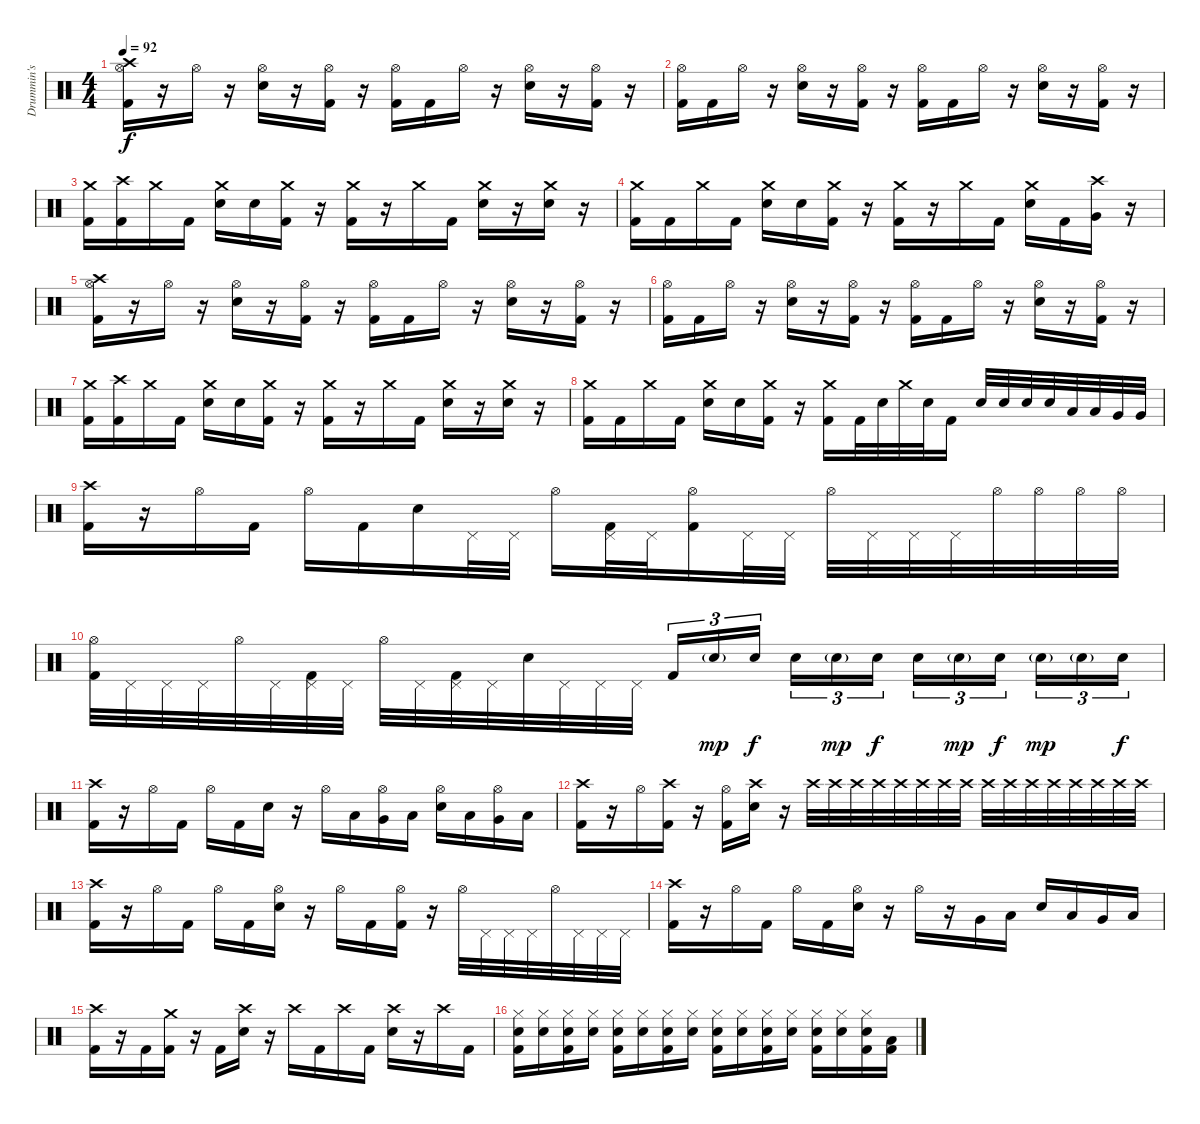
\track ("Drummin's" "Drummin's") {instrument percussion}
\staff {score}
\articulation defaults
\ts (4 4)
\tempo 92
\clef neutral
\ks c
("Crash high (hit)" "Hi-Hat (open)" "Kick (hit) 2").16{dy f} r.16 "Hi-Hat (open)".16 r.16 ("Hi-Hat (open)" "Snare (hit) 2").16 r.16 ("Hi-Hat (open)" "Kick (hit) 2").16 r.16 ("Hi-Hat (open)" "Kick (hit) 2").16 "Kick (hit) 2".16 "Hi-Hat (open)".16 r.16 ("Hi-Hat (open)" "Snare (hit) 2").16 r.16 ("Hi-Hat (open)" "Kick (hit) 2").16 r.16 |
("Hi-Hat (open)" "Kick (hit) 2").16 "Kick (hit) 2".16 "Hi-Hat (open)".16 r.16 ("Hi-Hat (open)" "Snare (hit) 2").16 r.16 ("Hi-Hat (open)" "Kick (hit) 2").16 r.16 ("Hi-Hat (open)" "Kick (hit) 2").16 "Kick (hit) 2".16 "Hi-Hat (open)".16 r.16 ("Hi-Hat (open)" "Snare (hit) 2").16 r.16 ("Hi-Hat (open)" "Kick (hit) 2").16 r.16 |
("Crash medium (hit)" "Kick (hit) 2").16 ("Crash high (hit)" "Kick (hit) 2").16 "Crash medium (hit)".16 "Kick (hit) 2".16 ("Crash medium (hit)" "Snare (hit) 2").16 "Snare (hit) 2".16 ("Crash medium (hit)" "Kick (hit) 2").16 r.16 ("Crash medium (hit)" "Kick (hit) 2").16 r.16 "Crash medium (hit)".16 "Kick (hit) 2".16 ("Crash medium (hit)" "Snare (hit) 2").16 r.16 ("Crash medium (hit)" "Snare (hit) 2").16 r.16 |
("Crash medium (hit)" "Kick (hit) 2").16 "Kick (hit) 2".16 "Crash medium (hit)".16 "Kick (hit) 2".16 ("Crash medium (hit)" "Snare (hit) 2").16 "Snare (hit) 2".16 ("Crash medium (hit)" "Kick (hit) 2").16 r.16 ("Crash medium (hit)" "Kick (hit) 2").16 r.16 "Crash medium (hit)".16 "Kick (hit) 2".16 ("Crash medium (hit)" "Snare (hit) 2").16 "Kick (hit) 2".16 ("Crash high (hit)" "Very Low Tom (hit)").16 r.16 |
("Crash high (hit)" "Hi-Hat (open)" "Kick (hit) 2").16 r.16 "Hi-Hat (open)".16 r.16 ("Hi-Hat (open)" "Snare (hit) 2").16 r.16 ("Hi-Hat (open)" "Kick (hit) 2").16 r.16 ("Hi-Hat (open)" "Kick (hit) 2").16 "Kick (hit) 2".16 "Hi-Hat (open)".16 r.16 ("Hi-Hat (open)" "Snare (hit) 2").16 r.16 ("Hi-Hat (open)" "Kick (hit) 2").16 r.16 |
("Hi-Hat (open)" "Kick (hit) 2").16 "Kick (hit) 2".16 "Hi-Hat (open)".16 r.16 ("Hi-Hat (open)" "Snare (hit) 2").16 r.16 ("Hi-Hat (open)" "Kick (hit) 2").16 r.16 ("Hi-Hat (open)" "Kick (hit) 2").16 "Kick (hit) 2".16 "Hi-Hat (open)".16 r.16 ("Hi-Hat (open)" "Snare (hit) 2").16 r.16 ("Hi-Hat (open)" "Kick (hit) 2").16 r.16 |
("Crash medium (hit)" "Kick (hit) 2").16 ("Crash high (hit)" "Kick (hit) 2").16 "Crash medium (hit)".16 "Kick (hit) 2".16 ("Crash medium (hit)" "Snare (hit) 2").16 "Snare (hit) 2".16 ("Crash medium (hit)" "Kick (hit) 2").16 r.16 ("Crash medium (hit)" "Kick (hit) 2").16 r.16 "Crash medium (hit)".16 "Kick (hit) 2".16 ("Crash medium (hit)" "Snare (hit) 2").16 r.16 ("Crash medium (hit)" "Snare (hit) 2").16 r.16 |
("Crash medium (hit)" "Kick (hit) 2").16 "Kick (hit) 2".16 "Crash medium (hit)".16 "Kick (hit) 2".16 ("Crash medium (hit)" "Snare (hit) 2").16 "Snare (hit) 2".16 ("Crash medium (hit)" "Kick (hit) 2").16 r.16 ("Crash medium (hit)" "Kick (hit) 2").16 "Kick (hit) 2".32 "Snare (hit) 2".32 "Crash medium (hit)".32 "Snare (hit) 2".32 "Kick (hit) 2".16 "Snare (hit) 2".32 "Snare (hit) 2".32 "Snare (hit) 2".32 "Snare (hit) 2".32 "Low Tom (hit)".32 "Low Tom (hit)".32 "Very Low Tom (hit)".32 "Very Low Tom (hit)".32 |
("Crash high (hit)" "Kick (hit) 2").16 r.16 "Hi-Hat (open)".16 "Kick (hit) 2".16 "Hi-Hat (open)".16 "Kick (hit) 2".16 "Snare (hit) 2".16 "Pedal Hi-Hat (hit)".32 "Pedal Hi-Hat (hit)".32 "Hi-Hat (open)".16 ("Pedal Hi-Hat (hit)" "Kick (hit) 2").32 "Pedal Hi-Hat (hit)".32 ("Hi-Hat (open)" "Kick (hit) 2").16 "Pedal Hi-Hat (hit)".32 "Pedal Hi-Hat (hit)".32 "Hi-Hat (open)".32 "Pedal Hi-Hat (hit)".32 "Pedal Hi-Hat (hit)".32 "Pedal Hi-Hat (hit)".32 "Hi-Hat (open)".32 "Hi-Hat (open)".32 "Hi-Hat (open)".32 "Hi-Hat (open)".32 |
("Hi-Hat (open)" "Kick (hit) 2").32 "Pedal Hi-Hat (hit)".32 "Pedal Hi-Hat (hit)".32 "Pedal Hi-Hat (hit)".32 "Hi-Hat (open)".32 "Pedal Hi-Hat (hit)".32 ("Pedal Hi-Hat (hit)" "Kick (hit) 2").32 "Pedal Hi-Hat (hit)".32 "Hi-Hat (open)".32 "Pedal Hi-Hat (hit)".32 ("Pedal Hi-Hat (hit)" "Kick (hit) 2").32 "Pedal Hi-Hat (hit)".32 "Snare (hit) 2".32 "Pedal Hi-Hat (hit)".32 "Pedal Hi-Hat (hit)".32 "Pedal Hi-Hat (hit)".32 "Kick (hit) 2".16{tu (3 2)} "Snare (hit) 2"{g}.16{tu (3 2) dy mp} "Snare (hit) 2".16{tu (3 2) dy f} "Snare (hit) 2".16{tu (3 2)} "Snare (hit) 2"{g}.16{tu (3 2) dy mp} "Snare (hit) 2".16{tu (3 2) dy f} "Snare (hit) 2".16{tu (3 2)} "Snare (hit) 2"{g}.16{tu (3 2) dy mp} "Snare (hit) 2".16{tu (3 2) dy f} "Snare (hit) 2"{g}.16{tu (3 2) dy mp} "Snare (hit) 2"{g}.16{tu (3 2)} "Snare (hit) 2".16{tu (3 2) dy f} |
("Crash high (hit)" "Kick (hit) 2").16 r.16 "Hi-Hat (open)".16 "Kick (hit) 2".16 "Hi-Hat (open)".16 "Kick (hit) 2".16 "Snare (hit) 2".16 r.16 "Hi-Hat (open)".16 "Low Tom (hit)".16 ("Hi-Hat (open)" "Very Low Tom (hit)").16 "Low Floor Tom (hit)".16 ("Hi-Hat (open)" "Snare (hit) 2").16 "Low Tom (hit)".16 ("Hi-Hat (open)" "Very Low Tom (hit)").16 "Low Floor Tom (hit)".16 |
("Crash high (hit)" "Kick (hit) 2").16 r.16 "Hi-Hat (open)".16 ("Crash high (hit)" "Kick (hit) 2").16 r.16 ("Hi-Hat (open)" "Kick (hit) 2").16 ("Crash high (hit)" "Snare (hit) 2").16 r.16 "Crash high (hit)".32{volume 6} "Crash high (hit)".32{volume 13} "Crash high (hit)".32 "Crash high (hit)".32 "Crash high (hit)".32 "Crash high (hit)".32 "Crash high (hit)".32 "Crash high (hit)".32 "Crash high (hit)".32 "Crash high (hit)".32 "Crash high (hit)".32 "Crash high (hit)".32 "Crash high (hit)".32 "Crash high (hit)".32 "Crash high (hit)".32 "Crash high (hit)".32 |
("Crash high (hit)" "Kick (hit) 2").16 r.16 "Hi-Hat (open)".16 "Kick (hit) 2".16 "Hi-Hat (open)".16 "Kick (hit) 2".16 ("Hi-Hat (open)" "Snare (hit) 2").16 r.16 "Hi-Hat (open)".16 "Kick (hit) 2".16 ("Hi-Hat (open)" "Kick (hit) 2").16 r.16 "Hi-Hat (open)".32 "Pedal Hi-Hat (hit)".32 "Pedal Hi-Hat (hit)".32 "Pedal Hi-Hat (hit)".32 "Hi-Hat (open)".32 "Pedal Hi-Hat (hit)".32 "Pedal Hi-Hat (hit)".32 "Pedal Hi-Hat (hit)".32 |
("Crash high (hit)" "Kick (hit) 2").16 r.16 "Hi-Hat (open)".16 "Kick (hit) 2".16 "Hi-Hat (open)".16 "Kick (hit) 2".16 ("Hi-Hat (open)" "Snare (hit) 2").16 r.16 "Hi-Hat (open)".16 r.16 "Very Low Tom (hit)".16 "Low Tom (hit)".16 "Snare (hit) 2".16 "Low Tom (hit)".16 "Very Low Tom (hit)".16 "Low Floor Tom (hit)".16 |
("Crash high (hit)" "Kick (hit) 2").16 r.16 "Kick (hit) 2".16 ("Crash medium (hit)" "Kick (hit) 2").16 r.16 "Kick (hit) 2".16 ("Crash high (hit)" "Snare (hit) 2").16 r.16 "Crash high (hit)".16 "Kick (hit) 2".16 "Crash high (hit)".16 "Kick (hit) 2".16 ("Crash high (hit)" "Snare (hit) 2").16 r.16 "Crash high (hit)".16 "Kick (hit) 2".16 |
("Hi-Hat (closed)" "Snare (hit) 2" "Kick (hit) 2").16 ("Hi-Hat (closed)" "Snare (hit) 2").16 ("Hi-Hat (closed)" "Snare (hit) 2" "Kick (hit) 2").16 ("Hi-Hat (closed)" "Snare (hit) 2").16 ("Hi-Hat (closed)" "Snare (hit) 2" "Kick (hit) 2").16 ("Hi-Hat (closed)" "Snare (hit) 2").16 ("Hi-Hat (closed)" "Snare (hit) 2" "Kick (hit) 2").16 ("Hi-Hat (closed)" "Snare (hit) 2").16 ("Hi-Hat (closed)" "Snare (hit) 2" "Kick (hit) 2").16 ("Hi-Hat (closed)" "Snare (hit) 2").16 ("Hi-Hat (closed)" "Snare (hit) 2" "Kick (hit) 2").16 ("Hi-Hat (closed)" "Snare (hit) 2").16 ("Hi-Hat (closed)" "Snare (hit) 2" "Kick (hit) 2").16 ("Hi-Hat (closed)" "Snare (hit) 2").16 ("Hi-Hat (closed)" "Snare (hit) 2" "Kick (hit) 2").16 ("Low Floor Tom (hit)" "Kick (hit) 2").16
